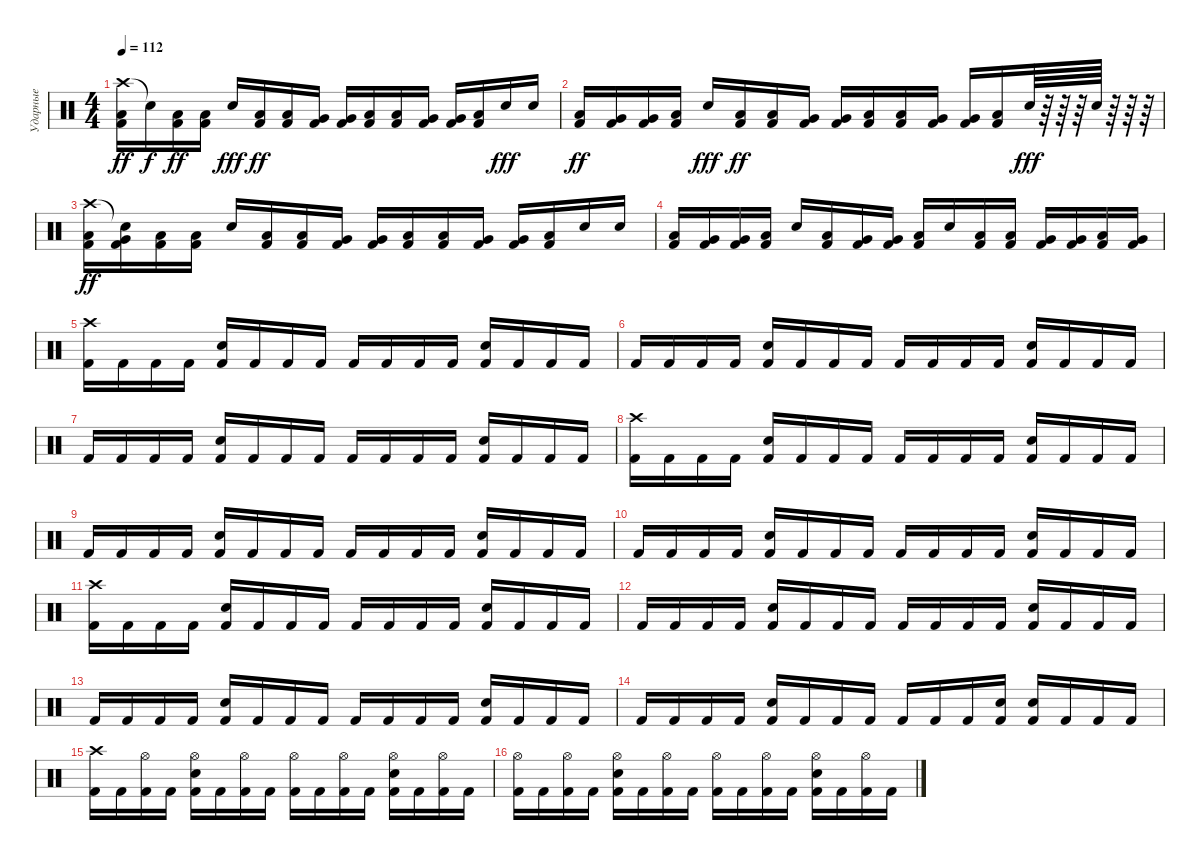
\track ("Ударные" "Ударные") {instrument percussion}
\staff {score}
\articulation defaults
\ts (4 4)
\tempo 112
\clef neutral
\ks c
("Crash high (hit)" "Kick (hit) 2" "Low Floor Tom (hit)").16{dy ff} "Snare (hit)"{t}.16{dy f} ("Kick (hit) 2" "Low Floor Tom (hit)").16{dy ff} ("Kick (hit) 2" "Low Floor Tom (hit)").16 "Snare (hit) 2".16{dy fff} ("Kick (hit) 2" "Low Floor Tom (hit)").16{dy ff} ("Kick (hit) 2" "Low Floor Tom (hit)").16 ("Kick (hit) 2" "Very Low Tom (hit)").16 ("Kick (hit) 2" "Very Low Tom (hit)").16 ("Kick (hit) 2" "Low Tom (hit)").16 ("Kick (hit) 2" "Low Tom (hit)").16 ("Kick (hit) 2" "Very Low Tom (hit)").16 ("Kick (hit) 2" "Very Low Tom (hit)").16 ("Kick (hit) 2" "Low Floor Tom (hit)").16 "Snare (hit) 2".16{dy fff} "Snare (hit) 2".16 |
("Kick (hit) 2" "Low Floor Tom (hit)").16{dy ff} ("Kick (hit) 2" "Very Low Tom (hit)").16 ("Kick (hit) 2" "Very Low Tom (hit)").16 ("Kick (hit) 2" "Low Floor Tom (hit)").16 "Snare (hit) 2".16{dy fff} ("Kick (hit) 2" "Low Floor Tom (hit)").16{dy ff} ("Kick (hit) 2" "Low Floor Tom (hit)").16 ("Kick (hit) 2" "Very Low Tom (hit)").16 ("Kick (hit) 2" "Very Low Tom (hit)").16 ("Kick (hit) 2" "Low Tom (hit)").16 ("Kick (hit) 2" "Low Tom (hit)").16 ("Kick (hit) 2" "Very Low Tom (hit)").16 ("Kick (hit) 2" "Very Low Tom (hit)").16 ("Kick (hit) 2" "Low Floor Tom (hit)").16 "Snare (hit) 2".64{dy fff} r.64 r.64 r.64 "Snare (hit) 2".64 r.64 r.64 r.64 |
("Crash high (hit)" "Kick (hit) 2" "Low Floor Tom (hit)").16{dy ff} ("Snare (hit)"{t} "Kick (hit) 2" "Very Low Tom (hit)").16 ("Kick (hit) 2" "Low Tom (hit)").16 ("Kick (hit) 2" "Low Floor Tom (hit)").16 "Snare (hit) 2".16 ("Kick (hit) 2" "Low Floor Tom (hit)").16 ("Kick (hit) 2" "Low Floor Tom (hit)").16 ("Kick (hit) 2" "Very Low Tom (hit)").16 ("Kick (hit) 2" "Very Low Tom (hit)").16 ("Kick (hit) 2" "Low Tom (hit)").16 ("Kick (hit) 2" "Low Tom (hit)").16 ("Kick (hit) 2" "Very Low Tom (hit)").16 ("Kick (hit) 2" "Very Low Tom (hit)").16 ("Kick (hit) 2" "Low Floor Tom (hit)").16 "Snare (hit) 2".16 "Snare (hit) 2".16 |
("Kick (hit) 2" "Low Floor Tom (hit)").16 ("Kick (hit) 2" "Very Low Tom (hit)").16 ("Kick (hit) 2" "Very Low Tom (hit)").16 ("Kick (hit) 2" "Low Floor Tom (hit)").16 "Snare (hit) 2".16 ("Kick (hit) 2" "Low Floor Tom (hit)").16 ("Kick (hit) 2" "Very Low Tom (hit)").16 ("Kick (hit) 2" "Very Low Tom (hit)").16 ("Kick (hit) 2" "Low Floor Tom (hit)").16 "Snare (hit) 2".16 ("Kick (hit) 2" "Low Floor Tom (hit)").16 ("Kick (hit) 2" "Low Floor Tom (hit)").16 ("Kick (hit) 2" "Very Low Tom (hit)").16 ("Kick (hit) 2" "Very Low Tom (hit)").16 ("Kick (hit) 2" "Low Floor Tom (hit)").16 ("Kick (hit) 2" "Very Low Tom (hit)").16 |
("Crash high (hit)" "Kick (hit) 2").16 "Kick (hit) 2".16 "Kick (hit) 2".16 "Kick (hit) 2".16 ("Snare (hit) 2" "Kick (hit) 2").16 "Kick (hit) 2".16 "Kick (hit) 2".16 "Kick (hit) 2".16 "Kick (hit) 2".16 "Kick (hit) 2".16 "Kick (hit) 2".16 "Kick (hit) 2".16 ("Snare (hit) 2" "Kick (hit) 2").16 "Kick (hit) 2".16 "Kick (hit) 2".16 "Kick (hit) 2".16 |
"Kick (hit) 2".16 "Kick (hit) 2".16 "Kick (hit) 2".16 "Kick (hit) 2".16 ("Snare (hit) 2" "Kick (hit) 2").16 "Kick (hit) 2".16 "Kick (hit) 2".16 "Kick (hit) 2".16 "Kick (hit) 2".16 "Kick (hit) 2".16 "Kick (hit) 2".16 "Kick (hit) 2".16 ("Snare (hit) 2" "Kick (hit) 2").16 "Kick (hit) 2".16 "Kick (hit) 2".16 "Kick (hit) 2".16 |
"Kick (hit) 2".16 "Kick (hit) 2".16 "Kick (hit) 2".16 "Kick (hit) 2".16 ("Snare (hit) 2" "Kick (hit) 2").16 "Kick (hit) 2".16 "Kick (hit) 2".16 "Kick (hit) 2".16 "Kick (hit) 2".16 "Kick (hit) 2".16 "Kick (hit) 2".16 "Kick (hit) 2".16 ("Snare (hit) 2" "Kick (hit) 2").16 "Kick (hit) 2".16 "Kick (hit) 2".16 "Kick (hit) 2".16 |
("Crash high (hit)" "Kick (hit) 2").16 "Kick (hit) 2".16 "Kick (hit) 2".16 "Kick (hit) 2".16 ("Snare (hit) 2" "Kick (hit) 2").16 "Kick (hit) 2".16 "Kick (hit) 2".16 "Kick (hit) 2".16 "Kick (hit) 2".16 "Kick (hit) 2".16 "Kick (hit) 2".16 "Kick (hit) 2".16 ("Snare (hit) 2" "Kick (hit) 2").16 "Kick (hit) 2".16 "Kick (hit) 2".16 "Kick (hit) 2".16 |
"Kick (hit) 2".16 "Kick (hit) 2".16 "Kick (hit) 2".16 "Kick (hit) 2".16 ("Snare (hit) 2" "Kick (hit) 2").16 "Kick (hit) 2".16 "Kick (hit) 2".16 "Kick (hit) 2".16 "Kick (hit) 2".16 "Kick (hit) 2".16 "Kick (hit) 2".16 "Kick (hit) 2".16 ("Snare (hit) 2" "Kick (hit) 2").16 "Kick (hit) 2".16 "Kick (hit) 2".16 "Kick (hit) 2".16 |
"Kick (hit) 2".16 "Kick (hit) 2".16 "Kick (hit) 2".16 "Kick (hit) 2".16 ("Snare (hit) 2" "Kick (hit) 2").16 "Kick (hit) 2".16 "Kick (hit) 2".16 "Kick (hit) 2".16 "Kick (hit) 2".16 "Kick (hit) 2".16 "Kick (hit) 2".16 "Kick (hit) 2".16 ("Snare (hit) 2" "Kick (hit) 2").16 "Kick (hit) 2".16 "Kick (hit) 2".16 "Kick (hit) 2".16 |
("Crash high (hit)" "Kick (hit) 2").16 "Kick (hit) 2".16 "Kick (hit) 2".16 "Kick (hit) 2".16 ("Snare (hit) 2" "Kick (hit) 2").16 "Kick (hit) 2".16 "Kick (hit) 2".16 "Kick (hit) 2".16 "Kick (hit) 2".16 "Kick (hit) 2".16 "Kick (hit) 2".16 "Kick (hit) 2".16 ("Snare (hit) 2" "Kick (hit) 2").16 "Kick (hit) 2".16 "Kick (hit) 2".16 "Kick (hit) 2".16 |
"Kick (hit) 2".16 "Kick (hit) 2".16 "Kick (hit) 2".16 "Kick (hit) 2".16 ("Snare (hit) 2" "Kick (hit) 2").16 "Kick (hit) 2".16 "Kick (hit) 2".16 "Kick (hit) 2".16 "Kick (hit) 2".16 "Kick (hit) 2".16 "Kick (hit) 2".16 "Kick (hit) 2".16 ("Snare (hit) 2" "Kick (hit) 2").16 "Kick (hit) 2".16 "Kick (hit) 2".16 "Kick (hit) 2".16 |
"Kick (hit) 2".16 "Kick (hit) 2".16 "Kick (hit) 2".16 "Kick (hit) 2".16 ("Snare (hit) 2" "Kick (hit) 2").16 "Kick (hit) 2".16 "Kick (hit) 2".16 "Kick (hit) 2".16 "Kick (hit) 2".16 "Kick (hit) 2".16 "Kick (hit) 2".16 "Kick (hit) 2".16 ("Snare (hit) 2" "Kick (hit) 2").16 "Kick (hit) 2".16 "Kick (hit) 2".16 "Kick (hit) 2".16 |
"Kick (hit) 2".16 "Kick (hit) 2".16 "Kick (hit) 2".16 "Kick (hit) 2".16 ("Snare (hit) 2" "Kick (hit) 2").16 "Kick (hit) 2".16 "Kick (hit) 2".16 "Kick (hit) 2".16 "Kick (hit) 2".16 "Kick (hit) 2".16 "Kick (hit) 2".16 ("Snare (hit) 2" "Kick (hit) 2").16 ("Snare (hit) 2" "Kick (hit) 2").16 "Kick (hit) 2".16 "Kick (hit) 2".16 "Kick (hit) 2".16 |
("Crash high (hit)" "Kick (hit) 2").16 "Kick (hit) 2".16 ("Hi-Hat (open)" "Kick (hit) 2").16 "Kick (hit) 2".16 ("Hi-Hat (open)" "Snare (hit) 2" "Kick (hit) 2").16 "Kick (hit) 2".16 ("Hi-Hat (open)" "Kick (hit) 2").16 "Kick (hit) 2".16 ("Hi-Hat (open)" "Kick (hit) 2").16 "Kick (hit) 2".16 ("Hi-Hat (open)" "Kick (hit) 2").16 "Kick (hit) 2".16 ("Hi-Hat (open)" "Snare (hit) 2" "Kick (hit) 2").16 "Kick (hit) 2".16 ("Hi-Hat (open)" "Kick (hit) 2").16 "Kick (hit) 2".16 |
("Hi-Hat (open)" "Kick (hit) 2").16 "Kick (hit) 2".16 ("Hi-Hat (open)" "Kick (hit) 2").16 "Kick (hit) 2".16 ("Hi-Hat (open)" "Snare (hit) 2" "Kick (hit) 2").16 "Kick (hit) 2".16 ("Hi-Hat (open)" "Kick (hit) 2").16 "Kick (hit) 2".16 ("Hi-Hat (open)" "Kick (hit) 2").16 "Kick (hit) 2".16 ("Hi-Hat (open)" "Kick (hit) 2").16 "Kick (hit) 2".16 ("Hi-Hat (open)" "Snare (hit) 2" "Kick (hit) 2").16 "Kick (hit) 2".16 ("Hi-Hat (open)" "Kick (hit) 2").16 "Kick (hit) 2".16
